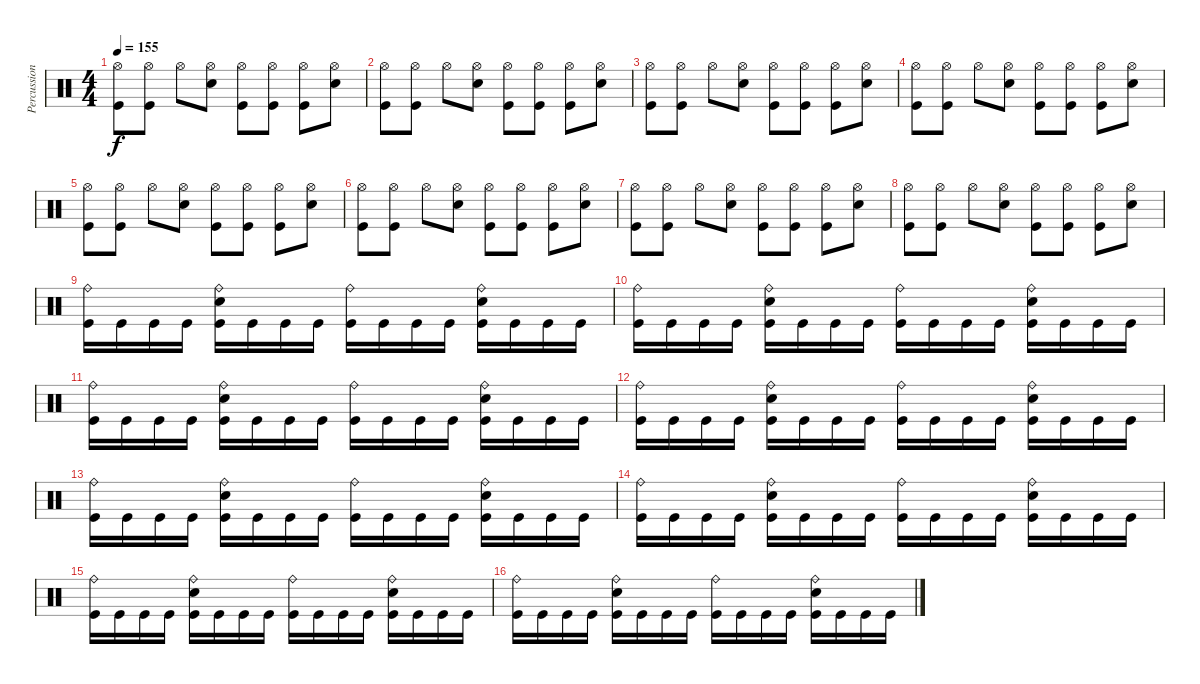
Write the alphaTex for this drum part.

\track ("Percussion" "Percussion") {instrument percussion}
\staff {score}
\articulation defaults
\ts (4 4)
\tempo 155
\clef neutral
\ks c
("Hi-Hat (open)" "Kick (hit)").8{dy f} ("Hi-Hat (open)" "Kick (hit)").8 "Hi-Hat (open)".8 ("Hi-Hat (open)" "Snare (hit) 2").8 ("Hi-Hat (open)" "Kick (hit)").8 ("Hi-Hat (open)" "Kick (hit)").8 ("Hi-Hat (open)" "Kick (hit)").8 ("Hi-Hat (open)" "Snare (hit) 2").8 |
("Hi-Hat (open)" "Kick (hit)").8 ("Hi-Hat (open)" "Kick (hit)").8 "Hi-Hat (open)".8 ("Hi-Hat (open)" "Snare (hit) 2").8 ("Hi-Hat (open)" "Kick (hit)").8 ("Hi-Hat (open)" "Kick (hit)").8 ("Hi-Hat (open)" "Kick (hit)").8 ("Hi-Hat (open)" "Snare (hit) 2").8 |
("Hi-Hat (open)" "Kick (hit)").8 ("Hi-Hat (open)" "Kick (hit)").8 "Hi-Hat (open)".8 ("Hi-Hat (open)" "Snare (hit) 2").8 ("Hi-Hat (open)" "Kick (hit)").8 ("Hi-Hat (open)" "Kick (hit)").8 ("Hi-Hat (open)" "Kick (hit)").8 ("Hi-Hat (open)" "Snare (hit) 2").8 |
("Hi-Hat (open)" "Kick (hit)").8 ("Hi-Hat (open)" "Kick (hit)").8 "Hi-Hat (open)".8 ("Hi-Hat (open)" "Snare (hit) 2").8 ("Hi-Hat (open)" "Kick (hit)").8 ("Hi-Hat (open)" "Kick (hit)").8 ("Hi-Hat (open)" "Kick (hit)").8 ("Hi-Hat (open)" "Snare (hit) 2").8 |
("Hi-Hat (open)" "Kick (hit)").8 ("Hi-Hat (open)" "Kick (hit)").8 "Hi-Hat (open)".8 ("Hi-Hat (open)" "Snare (hit) 2").8 ("Hi-Hat (open)" "Kick (hit)").8 ("Hi-Hat (open)" "Kick (hit)").8 ("Hi-Hat (open)" "Kick (hit)").8 ("Hi-Hat (open)" "Snare (hit) 2").8 |
("Hi-Hat (open)" "Kick (hit)").8 ("Hi-Hat (open)" "Kick (hit)").8 "Hi-Hat (open)".8 ("Hi-Hat (open)" "Snare (hit) 2").8 ("Hi-Hat (open)" "Kick (hit)").8 ("Hi-Hat (open)" "Kick (hit)").8 ("Hi-Hat (open)" "Kick (hit)").8 ("Hi-Hat (open)" "Snare (hit) 2").8 |
("Hi-Hat (open)" "Kick (hit)").8 ("Hi-Hat (open)" "Kick (hit)").8 "Hi-Hat (open)".8 ("Hi-Hat (open)" "Snare (hit) 2").8 ("Hi-Hat (open)" "Kick (hit)").8 ("Hi-Hat (open)" "Kick (hit)").8 ("Hi-Hat (open)" "Kick (hit)").8 ("Hi-Hat (open)" "Snare (hit) 2").8 |
("Hi-Hat (open)" "Kick (hit)").8 ("Hi-Hat (open)" "Kick (hit)").8 "Hi-Hat (open)".8 ("Hi-Hat (open)" "Snare (hit) 2").8 ("Hi-Hat (open)" "Kick (hit)").8 ("Hi-Hat (open)" "Kick (hit)").8 ("Hi-Hat (open)" "Kick (hit)").8 ("Hi-Hat (open)" "Snare (hit) 2").8 |
("Ride (bell)" "Kick (hit)").16 "Kick (hit)".16 "Kick (hit)".16 "Kick (hit)".16 ("Ride (bell)" "Snare (hit) 2" "Kick (hit)").16 "Kick (hit)".16 "Kick (hit)".16 "Kick (hit)".16 ("Ride (bell)" "Kick (hit)").16 "Kick (hit)".16 "Kick (hit)".16 "Kick (hit)".16 ("Ride (bell)" "Snare (hit) 2" "Kick (hit)").16 "Kick (hit)".16 "Kick (hit)".16 "Kick (hit)".16 |
("Ride (bell)" "Kick (hit)").16 "Kick (hit)".16 "Kick (hit)".16 "Kick (hit)".16 ("Ride (bell)" "Snare (hit) 2" "Kick (hit)").16 "Kick (hit)".16 "Kick (hit)".16 "Kick (hit)".16 ("Ride (bell)" "Kick (hit)").16 "Kick (hit)".16 "Kick (hit)".16 "Kick (hit)".16 ("Ride (bell)" "Snare (hit) 2" "Kick (hit)").16 "Kick (hit)".16 "Kick (hit)".16 "Kick (hit)".16 |
("Ride (bell)" "Kick (hit)").16 "Kick (hit)".16 "Kick (hit)".16 "Kick (hit)".16 ("Ride (bell)" "Snare (hit) 2" "Kick (hit)").16 "Kick (hit)".16 "Kick (hit)".16 "Kick (hit)".16 ("Ride (bell)" "Kick (hit)").16 "Kick (hit)".16 "Kick (hit)".16 "Kick (hit)".16 ("Ride (bell)" "Snare (hit) 2" "Kick (hit)").16 "Kick (hit)".16 "Kick (hit)".16 "Kick (hit)".16 |
("Ride (bell)" "Kick (hit)").16 "Kick (hit)".16 "Kick (hit)".16 "Kick (hit)".16 ("Ride (bell)" "Snare (hit) 2" "Kick (hit)").16 "Kick (hit)".16 "Kick (hit)".16 "Kick (hit)".16 ("Ride (bell)" "Kick (hit)").16 "Kick (hit)".16 "Kick (hit)".16 "Kick (hit)".16 ("Ride (bell)" "Snare (hit) 2" "Kick (hit)").16 "Kick (hit)".16 "Kick (hit)".16 "Kick (hit)".16 |
("Ride (bell)" "Kick (hit)").16 "Kick (hit)".16 "Kick (hit)".16 "Kick (hit)".16 ("Ride (bell)" "Snare (hit) 2" "Kick (hit)").16 "Kick (hit)".16 "Kick (hit)".16 "Kick (hit)".16 ("Ride (bell)" "Kick (hit)").16 "Kick (hit)".16 "Kick (hit)".16 "Kick (hit)".16 ("Ride (bell)" "Snare (hit) 2" "Kick (hit)").16 "Kick (hit)".16 "Kick (hit)".16 "Kick (hit)".16 |
("Ride (bell)" "Kick (hit)").16 "Kick (hit)".16 "Kick (hit)".16 "Kick (hit)".16 ("Ride (bell)" "Snare (hit) 2" "Kick (hit)").16 "Kick (hit)".16 "Kick (hit)".16 "Kick (hit)".16 ("Ride (bell)" "Kick (hit)").16 "Kick (hit)".16 "Kick (hit)".16 "Kick (hit)".16 ("Ride (bell)" "Snare (hit) 2" "Kick (hit)").16 "Kick (hit)".16 "Kick (hit)".16 "Kick (hit)".16 |
("Ride (bell)" "Kick (hit)").16 "Kick (hit)".16 "Kick (hit)".16 "Kick (hit)".16 ("Ride (bell)" "Snare (hit) 2" "Kick (hit)").16 "Kick (hit)".16 "Kick (hit)".16 "Kick (hit)".16 ("Ride (bell)" "Kick (hit)").16 "Kick (hit)".16 "Kick (hit)".16 "Kick (hit)".16 ("Ride (bell)" "Snare (hit) 2" "Kick (hit)").16 "Kick (hit)".16 "Kick (hit)".16 "Kick (hit)".16 |
("Ride (bell)" "Kick (hit)").16 "Kick (hit)".16 "Kick (hit)".16 "Kick (hit)".16 ("Ride (bell)" "Snare (hit) 2" "Kick (hit)").16 "Kick (hit)".16 "Kick (hit)".16 "Kick (hit)".16 ("Ride (bell)" "Kick (hit)").16 "Kick (hit)".16 "Kick (hit)".16 "Kick (hit)".16 ("Ride (bell)" "Snare (hit) 2" "Kick (hit)").16 "Kick (hit)".16 "Kick (hit)".16 "Kick (hit)".16
